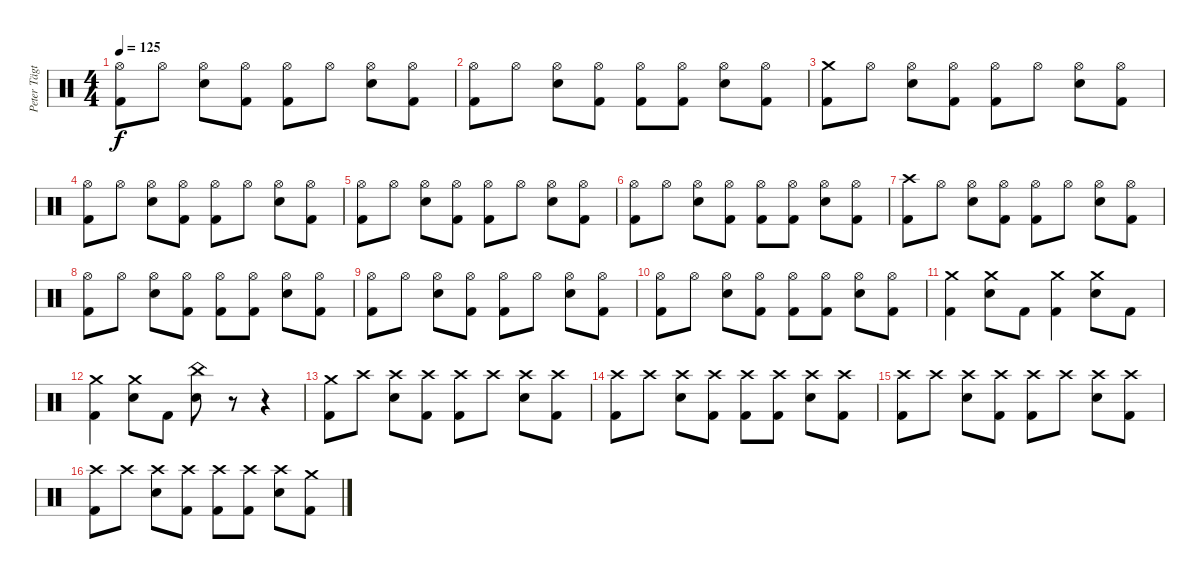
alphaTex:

\track ("Peter Tägtgren" "Peter Tägt") {instrument percussion}
\staff {score}
\articulation defaults
\ts (4 4)
\tempo 125
\clef neutral
\ks c
("Hi-Hat (open)" "Kick (hit) 2").8{dy f} "Hi-Hat (open)".8 ("Hi-Hat (open)" "Electric Snare (hit)").8 ("Hi-Hat (open)" "Kick (hit) 2").8 ("Hi-Hat (open)" "Kick (hit) 2").8 "Hi-Hat (open)".8 ("Hi-Hat (open)" "Electric Snare (hit)").8 ("Hi-Hat (open)" "Kick (hit) 2").8 |
("Hi-Hat (open)" "Kick (hit) 2").8 "Hi-Hat (open)".8 ("Hi-Hat (open)" "Electric Snare (hit)").8 ("Hi-Hat (open)" "Kick (hit) 2").8 ("Hi-Hat (open)" "Kick (hit) 2").8 ("Hi-Hat (open)" "Kick (hit) 2").8 ("Hi-Hat (open)" "Electric Snare (hit)").8 ("Hi-Hat (open)" "Kick (hit) 2").8 |
("Crash medium (hit)" "Kick (hit) 2").8 "Hi-Hat (open)".8 ("Hi-Hat (open)" "Electric Snare (hit)").8 ("Hi-Hat (open)" "Kick (hit) 2").8 ("Hi-Hat (open)" "Kick (hit) 2").8 "Hi-Hat (open)".8 ("Hi-Hat (open)" "Electric Snare (hit)").8 ("Hi-Hat (open)" "Kick (hit) 2").8 |
("Hi-Hat (open)" "Kick (hit) 2").8 "Hi-Hat (open)".8 ("Hi-Hat (open)" "Electric Snare (hit)").8 ("Hi-Hat (open)" "Kick (hit) 2").8 ("Hi-Hat (open)" "Kick (hit) 2").8 "Hi-Hat (open)".8 ("Hi-Hat (open)" "Electric Snare (hit)").8 ("Hi-Hat (open)" "Kick (hit) 2").8 |
("Hi-Hat (open)" "Kick (hit) 2").8 "Hi-Hat (open)".8 ("Hi-Hat (open)" "Electric Snare (hit)").8 ("Hi-Hat (open)" "Kick (hit) 2").8 ("Hi-Hat (open)" "Kick (hit) 2").8 "Hi-Hat (open)".8 ("Hi-Hat (open)" "Electric Snare (hit)").8 ("Hi-Hat (open)" "Kick (hit) 2").8 |
("Hi-Hat (open)" "Kick (hit) 2").8 "Hi-Hat (open)".8 ("Hi-Hat (open)" "Electric Snare (hit)").8 ("Hi-Hat (open)" "Kick (hit) 2").8 ("Hi-Hat (open)" "Kick (hit) 2").8 ("Hi-Hat (open)" "Kick (hit) 2").8 ("Hi-Hat (open)" "Electric Snare (hit)").8 ("Hi-Hat (open)" "Kick (hit) 2").8 |
("Crash high (hit)" "Kick (hit) 2").8 "Hi-Hat (open)".8 ("Hi-Hat (open)" "Electric Snare (hit)").8 ("Hi-Hat (open)" "Kick (hit) 2").8 ("Hi-Hat (open)" "Kick (hit) 2").8 "Hi-Hat (open)".8 ("Hi-Hat (open)" "Electric Snare (hit)").8 ("Hi-Hat (open)" "Kick (hit) 2").8 |
("Hi-Hat (open)" "Kick (hit) 2").8 "Hi-Hat (open)".8 ("Hi-Hat (open)" "Electric Snare (hit)").8 ("Hi-Hat (open)" "Kick (hit) 2").8 ("Hi-Hat (open)" "Kick (hit) 2").8 ("Hi-Hat (open)" "Kick (hit) 2").8 ("Hi-Hat (open)" "Electric Snare (hit)").8 ("Hi-Hat (open)" "Kick (hit) 2").8 |
("Hi-Hat (open)" "Kick (hit) 2").8 "Hi-Hat (open)".8 ("Hi-Hat (open)" "Electric Snare (hit)").8 ("Hi-Hat (open)" "Kick (hit) 2").8 ("Hi-Hat (open)" "Kick (hit) 2").8 "Hi-Hat (open)".8 ("Hi-Hat (open)" "Electric Snare (hit)").8 ("Hi-Hat (open)" "Kick (hit) 2").8 |
("Hi-Hat (open)" "Kick (hit) 2").8 "Hi-Hat (open)".8 ("Hi-Hat (open)" "Electric Snare (hit)").8 ("Hi-Hat (open)" "Kick (hit) 2").8 ("Hi-Hat (open)" "Kick (hit) 2").8 ("Hi-Hat (open)" "Kick (hit) 2").8 ("Hi-Hat (open)" "Electric Snare (hit)").8 ("Hi-Hat (open)" "Kick (hit) 2").8 |
("Crash medium (hit)" "Kick (hit) 2").4 ("Crash medium (hit)" "Electric Snare (hit)").8 "Kick (hit) 2".8 ("Crash medium (hit)" "Kick (hit) 2").4 ("Crash medium (hit)" "Electric Snare (hit)").8 "Kick (hit) 2".8 |
("Crash medium (hit)" "Kick (hit) 2").4 ("Crash medium (hit)" "Electric Snare (hit)").8 "Kick (hit) 2".8 ("China (hit)" "Electric Snare (hit)").8 r.8 r.4 |
("Crash medium (hit)" "Kick (hit) 2").8 "Crash high (hit)".8 ("Crash high (hit)" "Electric Snare (hit)").8 ("Crash high (hit)" "Kick (hit) 2").8 ("Crash high (hit)" "Kick (hit) 2").8 "Crash high (hit)".8 ("Crash high (hit)" "Electric Snare (hit)").8 ("Crash high (hit)" "Kick (hit) 2").8 |
("Crash high (hit)" "Kick (hit) 2").8 "Crash high (hit)".8 ("Crash high (hit)" "Electric Snare (hit)").8 ("Crash high (hit)" "Kick (hit) 2").8 ("Crash high (hit)" "Kick (hit) 2").8 ("Crash high (hit)" "Kick (hit) 2").8 ("Crash high (hit)" "Electric Snare (hit)").8 ("Crash high (hit)" "Kick (hit) 2").8 |
("Crash high (hit)" "Kick (hit) 2").8 "Crash high (hit)".8 ("Crash high (hit)" "Electric Snare (hit)").8 ("Crash high (hit)" "Kick (hit) 2").8 ("Crash high (hit)" "Kick (hit) 2").8 "Crash high (hit)".8 ("Crash high (hit)" "Electric Snare (hit)").8 ("Crash high (hit)" "Kick (hit) 2").8 |
("Crash high (hit)" "Kick (hit) 2").8 "Crash high (hit)".8 ("Crash high (hit)" "Electric Snare (hit)").8 ("Crash high (hit)" "Kick (hit) 2").8 ("Crash high (hit)" "Kick (hit) 2").8 ("Crash high (hit)" "Kick (hit) 2").8 ("Crash high (hit)" "Electric Snare (hit)").8 ("Crash medium (hit)" "Kick (hit) 2").8
